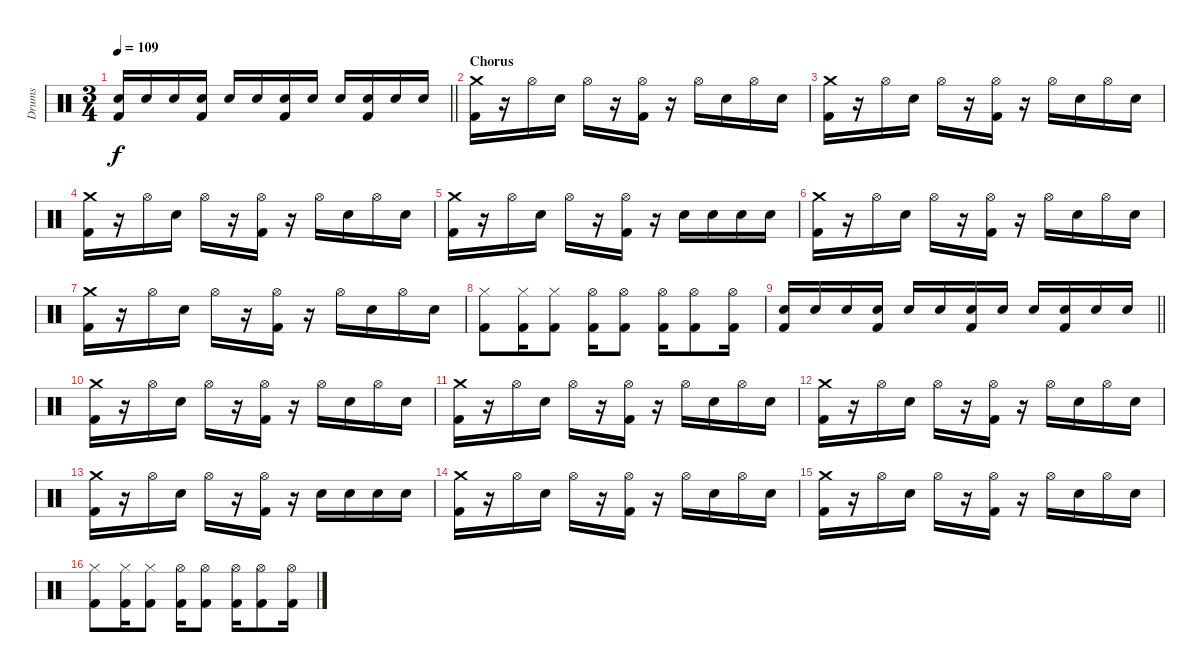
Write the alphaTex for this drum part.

\track ("Drums" "Drums") {instrument percussion}
\staff {score}
\articulation defaults
\ts (3 4)
\tempo 109
\clef neutral
\barLineRight lightlight
\ks c
("Electric Snare (hit)" "Kick (hit) 2").16{dy f} "Electric Snare (hit)".16 "Electric Snare (hit)".16 ("Electric Snare (hit)" "Kick (hit) 2").16 "Electric Snare (hit)".16 "Electric Snare (hit)".16 ("Electric Snare (hit)" "Kick (hit) 2").16 "Electric Snare (hit)".16 "Electric Snare (hit)".16 ("Electric Snare (hit)" "Kick (hit) 2").16 "Electric Snare (hit)".16 "Electric Snare (hit)".16 |
\section ("" "Chorus")
("Crash medium (hit)" "Kick (hit) 2").16 r.16 "Hi-Hat (open)".16 "Electric Snare (hit)".16 "Hi-Hat (open)".16 r.16 ("Hi-Hat (open)" "Kick (hit) 2").16 r.16 "Hi-Hat (open)".16 "Electric Snare (hit)".16 "Hi-Hat (open)".16 "Electric Snare (hit)".16 |
("Crash medium (hit)" "Kick (hit) 2").16 r.16 "Hi-Hat (open)".16 "Electric Snare (hit)".16 "Hi-Hat (open)".16 r.16 ("Hi-Hat (open)" "Kick (hit) 2").16 r.16 "Hi-Hat (open)".16 "Electric Snare (hit)".16 "Hi-Hat (open)".16 "Electric Snare (hit)".16 |
("Crash medium (hit)" "Kick (hit) 2").16 r.16 "Hi-Hat (open)".16 "Electric Snare (hit)".16 "Hi-Hat (open)".16 r.16 ("Hi-Hat (open)" "Kick (hit) 2").16 r.16 "Hi-Hat (open)".16 "Electric Snare (hit)".16 "Hi-Hat (open)".16 "Electric Snare (hit)".16 |
("Crash medium (hit)" "Kick (hit) 2").16 r.16 "Hi-Hat (open)".16 "Electric Snare (hit)".16 "Hi-Hat (open)".16 r.16 ("Hi-Hat (open)" "Kick (hit) 2").16 r.16 "Electric Snare (hit)".16 "Electric Snare (hit)".16 "Electric Snare (hit)".16 "Electric Snare (hit)".16 |
("Crash medium (hit)" "Kick (hit) 2").16 r.16 "Hi-Hat (open)".16 "Electric Snare (hit)".16 "Hi-Hat (open)".16 r.16 ("Hi-Hat (open)" "Kick (hit) 2").16 r.16 "Hi-Hat (open)".16 "Electric Snare (hit)".16 "Hi-Hat (open)".16 "Electric Snare (hit)".16 |
("Crash medium (hit)" "Kick (hit) 2").16 r.16 "Hi-Hat (open)".16 "Electric Snare (hit)".16 "Hi-Hat (open)".16 r.16 ("Hi-Hat (open)" "Kick (hit) 2").16 r.16 "Hi-Hat (open)".16 "Electric Snare (hit)".16 "Hi-Hat (open)".16 "Electric Snare (hit)".16 |
("Hi-Hat (closed)" "Kick (hit) 2").8 ("Hi-Hat (closed)" "Kick (hit) 2").16 ("Hi-Hat (closed)" "Kick (hit) 2").8 ("Hi-Hat (open)" "Kick (hit) 2").16 ("Hi-Hat (open)" "Kick (hit) 2").8 ("Hi-Hat (open)" "Kick (hit) 2").16 ("Hi-Hat (open)" "Kick (hit) 2").8 ("Hi-Hat (open)" "Kick (hit) 2").16 |
\barLineRight lightlight
("Electric Snare (hit)" "Kick (hit) 2").16 "Electric Snare (hit)".16 "Electric Snare (hit)".16 ("Electric Snare (hit)" "Kick (hit) 2").16 "Electric Snare (hit)".16 "Electric Snare (hit)".16 ("Electric Snare (hit)" "Kick (hit) 2").16 "Electric Snare (hit)".16 "Electric Snare (hit)".16 ("Electric Snare (hit)" "Kick (hit) 2").16 "Electric Snare (hit)".16 "Electric Snare (hit)".16 |
("Crash medium (hit)" "Kick (hit) 2").16 r.16 "Hi-Hat (open)".16 "Electric Snare (hit)".16 "Hi-Hat (open)".16 r.16 ("Hi-Hat (open)" "Kick (hit) 2").16 r.16 "Hi-Hat (open)".16 "Electric Snare (hit)".16 "Hi-Hat (open)".16 "Electric Snare (hit)".16 |
("Crash medium (hit)" "Kick (hit) 2").16 r.16 "Hi-Hat (open)".16 "Electric Snare (hit)".16 "Hi-Hat (open)".16 r.16 ("Hi-Hat (open)" "Kick (hit) 2").16 r.16 "Hi-Hat (open)".16 "Electric Snare (hit)".16 "Hi-Hat (open)".16 "Electric Snare (hit)".16 |
("Crash medium (hit)" "Kick (hit) 2").16 r.16 "Hi-Hat (open)".16 "Electric Snare (hit)".16 "Hi-Hat (open)".16 r.16 ("Hi-Hat (open)" "Kick (hit) 2").16 r.16 "Hi-Hat (open)".16 "Electric Snare (hit)".16 "Hi-Hat (open)".16 "Electric Snare (hit)".16 |
("Crash medium (hit)" "Kick (hit) 2").16 r.16 "Hi-Hat (open)".16 "Electric Snare (hit)".16 "Hi-Hat (open)".16 r.16 ("Hi-Hat (open)" "Kick (hit) 2").16 r.16 "Electric Snare (hit)".16 "Electric Snare (hit)".16 "Electric Snare (hit)".16 "Electric Snare (hit)".16 |
("Crash medium (hit)" "Kick (hit) 2").16 r.16 "Hi-Hat (open)".16 "Electric Snare (hit)".16 "Hi-Hat (open)".16 r.16 ("Hi-Hat (open)" "Kick (hit) 2").16 r.16 "Hi-Hat (open)".16 "Electric Snare (hit)".16 "Hi-Hat (open)".16 "Electric Snare (hit)".16 |
("Crash medium (hit)" "Kick (hit) 2").16 r.16 "Hi-Hat (open)".16 "Electric Snare (hit)".16 "Hi-Hat (open)".16 r.16 ("Hi-Hat (open)" "Kick (hit) 2").16 r.16 "Hi-Hat (open)".16 "Electric Snare (hit)".16 "Hi-Hat (open)".16 "Electric Snare (hit)".16 |
("Hi-Hat (closed)" "Kick (hit) 2").8 ("Hi-Hat (closed)" "Kick (hit) 2").16 ("Hi-Hat (closed)" "Kick (hit) 2").8 ("Hi-Hat (open)" "Kick (hit) 2").16 ("Hi-Hat (open)" "Kick (hit) 2").8 ("Hi-Hat (open)" "Kick (hit) 2").16 ("Hi-Hat (open)" "Kick (hit) 2").8 ("Hi-Hat (open)" "Kick (hit) 2").16
